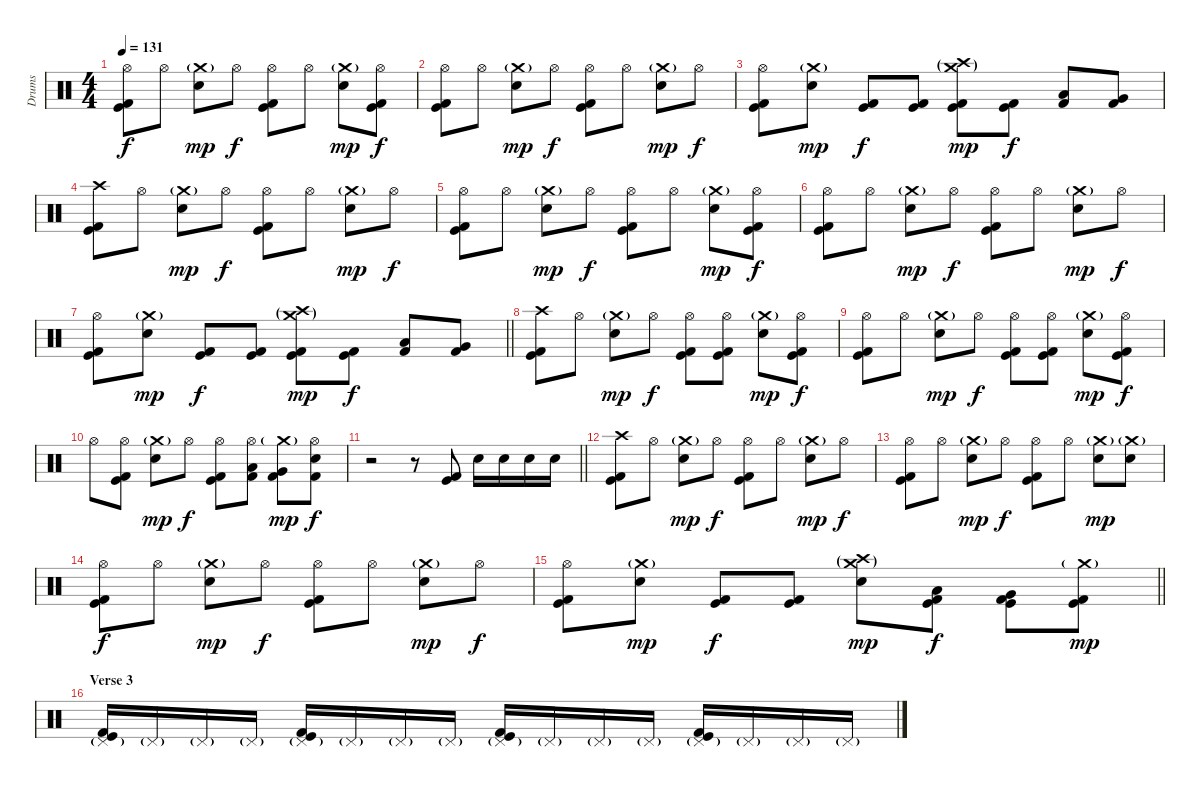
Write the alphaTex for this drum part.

\track ("Drums" "Drums") {instrument percussion}
\staff {score}
\articulation defaults
\ts (4 4)
\tempo 131
\clef neutral
\ks c
("Hi-Hat (open)" "Kick (hit)" "Kick (hit) 2").8{dy f} "Hi-Hat (open)".8 ("Crash medium (hit)"{g} "Electric Snare (hit)").8{dy mp} "Hi-Hat (open)".8{dy f} ("Hi-Hat (open)" "Kick (hit)" "Kick (hit) 2").8 "Hi-Hat (open)".8 ("Crash medium (hit)"{g} "Electric Snare (hit)").8{dy mp} ("Hi-Hat (open)" "Kick (hit)" "Kick (hit) 2").8{dy f} |
("Hi-Hat (open)" "Kick (hit)" "Kick (hit) 2").8 "Hi-Hat (open)".8 ("Crash medium (hit)"{g} "Electric Snare (hit)").8{dy mp} "Hi-Hat (open)".8{dy f} ("Hi-Hat (open)" "Kick (hit)" "Kick (hit) 2").8 "Hi-Hat (open)".8 ("Crash medium (hit)"{g} "Electric Snare (hit)").8{dy mp} "Hi-Hat (open)".8{dy f} |
("Hi-Hat (open)" "Kick (hit)" "Kick (hit) 2").8 ("Crash medium (hit)"{g} "Electric Snare (hit)").8{dy mp} ("Kick (hit)" "Kick (hit) 2").8{dy f} ("Kick (hit)" "Kick (hit) 2").8 ("Crash medium (hit)"{g} "Crash high (hit)"{g} "Kick (hit)" "Kick (hit) 2").8{dy mp} ("Kick (hit)" "Kick (hit) 2").8{dy f} ("Kick (hit) 2" "Low Tom (hit)").8 ("Kick (hit) 2" "Very Low Tom (hit)").8 |
("Crash high (hit)" "Kick (hit)" "Kick (hit) 2").8 "Hi-Hat (open)".8 ("Crash medium (hit)"{g} "Electric Snare (hit)").8{dy mp} "Hi-Hat (open)".8{dy f} ("Hi-Hat (open)" "Kick (hit)" "Kick (hit) 2").8 "Hi-Hat (open)".8 ("Crash medium (hit)"{g} "Electric Snare (hit)").8{dy mp} "Hi-Hat (open)".8{dy f} |
("Hi-Hat (open)" "Kick (hit)" "Kick (hit) 2").8 "Hi-Hat (open)".8 ("Crash medium (hit)"{g} "Electric Snare (hit)").8{dy mp} "Hi-Hat (open)".8{dy f} ("Hi-Hat (open)" "Kick (hit)" "Kick (hit) 2").8 "Hi-Hat (open)".8 ("Crash medium (hit)"{g} "Electric Snare (hit)").8{dy mp} ("Hi-Hat (open)" "Kick (hit)" "Kick (hit) 2").8{dy f} |
("Hi-Hat (open)" "Kick (hit)" "Kick (hit) 2").8 "Hi-Hat (open)".8 ("Crash medium (hit)"{g} "Electric Snare (hit)").8{dy mp} "Hi-Hat (open)".8{dy f} ("Hi-Hat (open)" "Kick (hit)" "Kick (hit) 2").8 "Hi-Hat (open)".8 ("Crash medium (hit)"{g} "Electric Snare (hit)").8{dy mp} "Hi-Hat (open)".8{dy f} |
\barLineRight lightlight
("Hi-Hat (open)" "Kick (hit)" "Kick (hit) 2").8 ("Crash medium (hit)"{g} "Electric Snare (hit)").8{dy mp} ("Kick (hit)" "Kick (hit) 2").8{dy f} ("Kick (hit)" "Kick (hit) 2").8 ("Crash medium (hit)"{g} "Crash high (hit)"{g} "Kick (hit)" "Kick (hit) 2").8{dy mp} ("Kick (hit)" "Kick (hit) 2").8{dy f} ("Kick (hit) 2" "Low Tom (hit)").8 ("Kick (hit) 2" "Very Low Tom (hit)").8 |
\section ("" "")
("Crash high (hit)" "Kick (hit)" "Kick (hit) 2").8 "Hi-Hat (open)".8 ("Crash medium (hit)"{g} "Electric Snare (hit)").8{dy mp} "Hi-Hat (open)".8{dy f} ("Hi-Hat (open)" "Kick (hit)" "Kick (hit) 2").8 ("Hi-Hat (open)" "Kick (hit)" "Kick (hit) 2").8 ("Crash medium (hit)"{g} "Electric Snare (hit)").8{dy mp} ("Hi-Hat (open)" "Kick (hit)" "Kick (hit) 2").8{dy f} |
("Hi-Hat (open)" "Kick (hit)" "Kick (hit) 2").8 "Hi-Hat (open)".8 ("Crash medium (hit)"{g} "Electric Snare (hit)").8{dy mp} "Hi-Hat (open)".8{dy f} ("Hi-Hat (open)" "Kick (hit)" "Kick (hit) 2").8 ("Hi-Hat (open)" "Kick (hit)" "Kick (hit) 2").8 ("Crash medium (hit)"{g} "Electric Snare (hit)").8{dy mp} ("Hi-Hat (open)" "Kick (hit)" "Kick (hit) 2").8{dy f} |
"Hi-Hat (open)".8 ("Hi-Hat (open)" "Kick (hit)" "Kick (hit) 2").8 ("Crash medium (hit)"{g} "Electric Snare (hit)").8{dy mp} "Hi-Hat (open)".8{dy f} ("Hi-Hat (open)" "Kick (hit)" "Kick (hit) 2").8 ("Hi-Hat (open)" "Kick (hit) 2" "Low Tom (hit)").8 ("Crash medium (hit)"{g} "Kick (hit) 2" "Very Low Tom (hit)").8{dy mp} ("Hi-Hat (open)" "Electric Snare (hit)" "Kick (hit) 2").8{dy f} |
\barLineRight lightlight
r.2 r.8 ("Kick (hit)" "Kick (hit) 2").8 "Electric Snare (hit)".16 "Electric Snare (hit)".16 "Electric Snare (hit)".16 "Electric Snare (hit)".16 |
\section ("" "")
("Crash high (hit)" "Kick (hit)" "Kick (hit) 2").8 "Hi-Hat (open)".8 ("Crash medium (hit)"{g} "Electric Snare (hit)").8{dy mp} "Hi-Hat (open)".8{dy f} ("Hi-Hat (open)" "Kick (hit)" "Kick (hit) 2").8 "Hi-Hat (open)".8 ("Crash medium (hit)"{g} "Electric Snare (hit)").8{dy mp} "Hi-Hat (open)".8{dy f} |
("Hi-Hat (open)" "Kick (hit)" "Kick (hit) 2").8 "Hi-Hat (open)".8 ("Crash medium (hit)"{g} "Electric Snare (hit)").8{dy mp} "Hi-Hat (open)".8{dy f} ("Hi-Hat (open)" "Kick (hit)" "Kick (hit) 2").8 "Hi-Hat (open)".8 ("Crash medium (hit)"{g} "Electric Snare (hit)").8{dy mp} ("Crash medium (hit)"{g} "Electric Snare (hit)").8 |
("Hi-Hat (open)" "Kick (hit)" "Kick (hit) 2").8{dy f} "Hi-Hat (open)".8 ("Crash medium (hit)"{g} "Electric Snare (hit)").8{dy mp} "Hi-Hat (open)".8{dy f} ("Hi-Hat (open)" "Kick (hit)" "Kick (hit) 2").8 "Hi-Hat (open)".8 ("Crash medium (hit)"{g} "Electric Snare (hit)").8{dy mp} "Hi-Hat (open)".8{dy f} |
\barLineRight lightlight
("Hi-Hat (open)" "Kick (hit)" "Kick (hit) 2").8 ("Crash medium (hit)"{g} "Electric Snare (hit)").8{dy mp} ("Kick (hit)" "Kick (hit) 2").8{dy f} ("Kick (hit)" "Kick (hit) 2").8 ("Crash medium (hit)"{g} "Crash high (hit)"{g} "Electric Snare (hit)").8{dy mp} ("Kick (hit)" "Kick (hit) 2" "Low Tom (hit)").8{dy f} ("Kick (hit)" "Kick (hit) 2" "Very Low Tom (hit)").8 ("Crash medium (hit)"{g} "Kick (hit)" "Kick (hit) 2").8{dy mp} |
\section ("" "Verse 3")
("Pedal Hi-Hat (hit)"{g} "Kick (hit)" "Kick (hit) 2").16 "Pedal Hi-Hat (hit)"{g}.16 "Pedal Hi-Hat (hit)"{g}.16 "Pedal Hi-Hat (hit)"{g}.16 ("Pedal Hi-Hat (hit)"{g} "Kick (hit)" "Kick (hit) 2").16 "Pedal Hi-Hat (hit)"{g}.16 "Pedal Hi-Hat (hit)"{g}.16 "Pedal Hi-Hat (hit)"{g}.16 ("Pedal Hi-Hat (hit)"{g} "Kick (hit)" "Kick (hit) 2").16 "Pedal Hi-Hat (hit)"{g}.16 "Pedal Hi-Hat (hit)"{g}.16 "Pedal Hi-Hat (hit)"{g}.16 ("Pedal Hi-Hat (hit)"{g} "Kick (hit)" "Kick (hit) 2").16 "Pedal Hi-Hat (hit)"{g}.16 "Pedal Hi-Hat (hit)"{g}.16 "Pedal Hi-Hat (hit)"{g}.16
